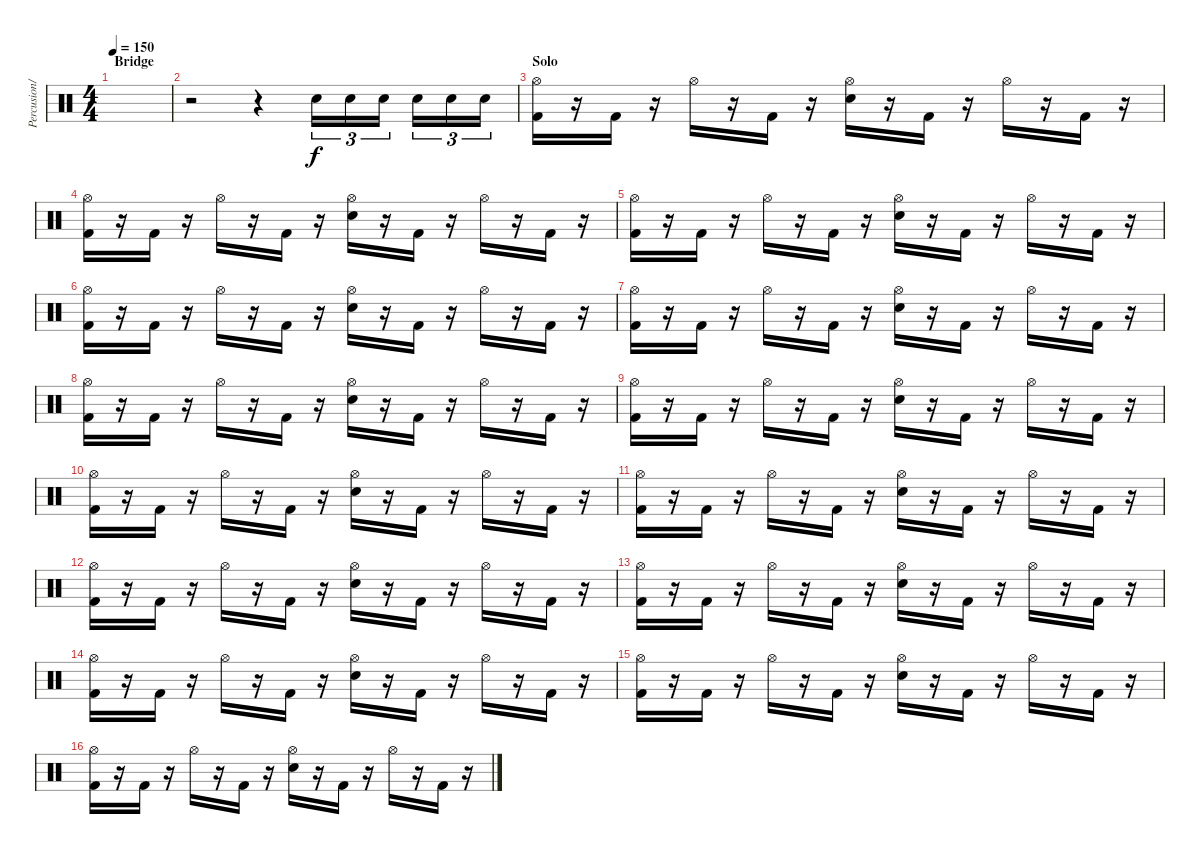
\track ("Percusion/Drum" "Percusion/") {instrument percussion}
\staff {score}
\articulation defaults
\ts (4 4)
\section ("" "Bridge")
\tempo 150
\clef neutral
\ks c
|
r.2 r.4 "Electric Snare (hit)".16{tu (3 2) dy f} "Electric Snare (hit)".16{tu (3 2)} "Electric Snare (hit)".16{tu (3 2)} "Electric Snare (hit)".16{tu (3 2)} "Electric Snare (hit)".16{tu (3 2)} "Electric Snare (hit)".16{tu (3 2)} |
\section ("" "Solo")
("Hi-Hat (open)" "Kick (hit) 2").16 r.16 "Kick (hit) 2".16 r.16 "Hi-Hat (open)".16 r.16 "Kick (hit) 2".16 r.16 ("Hi-Hat (open)" "Electric Snare (hit)").16 r.16 "Kick (hit) 2".16 r.16 "Hi-Hat (open)".16 r.16 "Kick (hit) 2".16 r.16 |
("Hi-Hat (open)" "Kick (hit) 2").16 r.16 "Kick (hit) 2".16 r.16 "Hi-Hat (open)".16 r.16 "Kick (hit) 2".16 r.16 ("Hi-Hat (open)" "Electric Snare (hit)").16 r.16 "Kick (hit) 2".16 r.16 "Hi-Hat (open)".16 r.16 "Kick (hit) 2".16 r.16 |
("Hi-Hat (open)" "Kick (hit) 2").16 r.16 "Kick (hit) 2".16 r.16 "Hi-Hat (open)".16 r.16 "Kick (hit) 2".16 r.16 ("Hi-Hat (open)" "Electric Snare (hit)").16 r.16 "Kick (hit) 2".16 r.16 "Hi-Hat (open)".16 r.16 "Kick (hit) 2".16 r.16 |
("Hi-Hat (open)" "Kick (hit) 2").16 r.16 "Kick (hit) 2".16 r.16 "Hi-Hat (open)".16 r.16 "Kick (hit) 2".16 r.16 ("Hi-Hat (open)" "Electric Snare (hit)").16 r.16 "Kick (hit) 2".16 r.16 "Hi-Hat (open)".16 r.16 "Kick (hit) 2".16 r.16 |
("Hi-Hat (open)" "Kick (hit) 2").16 r.16 "Kick (hit) 2".16 r.16 "Hi-Hat (open)".16 r.16 "Kick (hit) 2".16 r.16 ("Hi-Hat (open)" "Electric Snare (hit)").16 r.16 "Kick (hit) 2".16 r.16 "Hi-Hat (open)".16 r.16 "Kick (hit) 2".16 r.16 |
("Hi-Hat (open)" "Kick (hit) 2").16 r.16 "Kick (hit) 2".16 r.16 "Hi-Hat (open)".16 r.16 "Kick (hit) 2".16 r.16 ("Hi-Hat (open)" "Electric Snare (hit)").16 r.16 "Kick (hit) 2".16 r.16 "Hi-Hat (open)".16 r.16 "Kick (hit) 2".16 r.16 |
("Hi-Hat (open)" "Kick (hit) 2").16 r.16 "Kick (hit) 2".16 r.16 "Hi-Hat (open)".16 r.16 "Kick (hit) 2".16 r.16 ("Hi-Hat (open)" "Electric Snare (hit)").16 r.16 "Kick (hit) 2".16 r.16 "Hi-Hat (open)".16 r.16 "Kick (hit) 2".16 r.16 |
("Hi-Hat (open)" "Kick (hit) 2").16 r.16 "Kick (hit) 2".16 r.16 "Hi-Hat (open)".16 r.16 "Kick (hit) 2".16 r.16 ("Hi-Hat (open)" "Electric Snare (hit)").16 r.16 "Kick (hit) 2".16 r.16 "Hi-Hat (open)".16 r.16 "Kick (hit) 2".16 r.16 |
("Hi-Hat (open)" "Kick (hit) 2").16 r.16 "Kick (hit) 2".16 r.16 "Hi-Hat (open)".16 r.16 "Kick (hit) 2".16 r.16 ("Hi-Hat (open)" "Electric Snare (hit)").16 r.16 "Kick (hit) 2".16 r.16 "Hi-Hat (open)".16 r.16 "Kick (hit) 2".16 r.16 |
("Hi-Hat (open)" "Kick (hit) 2").16 r.16 "Kick (hit) 2".16 r.16 "Hi-Hat (open)".16 r.16 "Kick (hit) 2".16 r.16 ("Hi-Hat (open)" "Electric Snare (hit)").16 r.16 "Kick (hit) 2".16 r.16 "Hi-Hat (open)".16 r.16 "Kick (hit) 2".16 r.16 |
("Hi-Hat (open)" "Kick (hit) 2").16 r.16 "Kick (hit) 2".16 r.16 "Hi-Hat (open)".16 r.16 "Kick (hit) 2".16 r.16 ("Hi-Hat (open)" "Electric Snare (hit)").16 r.16 "Kick (hit) 2".16 r.16 "Hi-Hat (open)".16 r.16 "Kick (hit) 2".16 r.16 |
("Hi-Hat (open)" "Kick (hit) 2").16 r.16 "Kick (hit) 2".16 r.16 "Hi-Hat (open)".16 r.16 "Kick (hit) 2".16 r.16 ("Hi-Hat (open)" "Electric Snare (hit)").16 r.16 "Kick (hit) 2".16 r.16 "Hi-Hat (open)".16 r.16 "Kick (hit) 2".16 r.16 |
("Hi-Hat (open)" "Kick (hit) 2").16 r.16 "Kick (hit) 2".16 r.16 "Hi-Hat (open)".16 r.16 "Kick (hit) 2".16 r.16 ("Hi-Hat (open)" "Electric Snare (hit)").16 r.16 "Kick (hit) 2".16 r.16 "Hi-Hat (open)".16 r.16 "Kick (hit) 2".16 r.16 |
("Hi-Hat (open)" "Kick (hit) 2").16 r.16 "Kick (hit) 2".16 r.16 "Hi-Hat (open)".16 r.16 "Kick (hit) 2".16 r.16 ("Hi-Hat (open)" "Electric Snare (hit)").16 r.16 "Kick (hit) 2".16 r.16 "Hi-Hat (open)".16 r.16 "Kick (hit) 2".16 r.16
